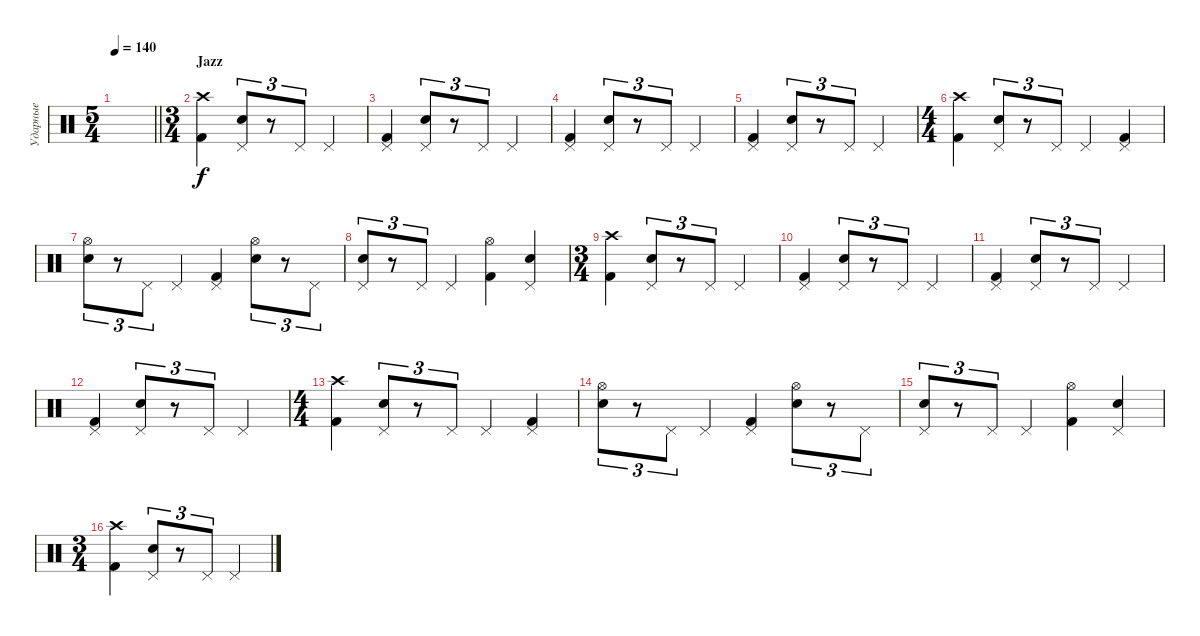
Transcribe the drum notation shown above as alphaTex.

\track ("Ударные" "Ударные") {instrument percussion}
\staff {score}
\articulation defaults
\ts (5 4)
\tempo 140
\clef neutral
\barLineRight lightlight
\ks c
|
\ts (3 4)
\section ("" "Jazz")
("Crash high (hit)" "Kick (hit) 2").4 ("Pedal Hi-Hat (hit)" "Electric Snare (hit)").8{tu (3 2)} r.8{tu (3 2)} "Pedal Hi-Hat (hit)".8{tu (3 2)} "Pedal Hi-Hat (hit)".4 |
("Pedal Hi-Hat (hit)" "Kick (hit) 2").4 ("Pedal Hi-Hat (hit)" "Electric Snare (hit)").8{tu (3 2)} r.8{tu (3 2)} "Pedal Hi-Hat (hit)".8{tu (3 2)} "Pedal Hi-Hat (hit)".4 |
("Pedal Hi-Hat (hit)" "Kick (hit) 2").4 ("Pedal Hi-Hat (hit)" "Electric Snare (hit)").8{tu (3 2)} r.8{tu (3 2)} "Pedal Hi-Hat (hit)".8{tu (3 2)} "Pedal Hi-Hat (hit)".4 |
("Pedal Hi-Hat (hit)" "Kick (hit) 2").4 ("Pedal Hi-Hat (hit)" "Electric Snare (hit)").8{tu (3 2)} r.8{tu (3 2)} "Pedal Hi-Hat (hit)".8{tu (3 2)} "Pedal Hi-Hat (hit)".4 |
\ts (4 4)
("Crash high (hit)" "Kick (hit) 2").4 ("Pedal Hi-Hat (hit)" "Electric Snare (hit)").8{tu (3 2)} r.8{tu (3 2)} "Pedal Hi-Hat (hit)".8{tu (3 2)} "Pedal Hi-Hat (hit)".4 ("Pedal Hi-Hat (hit)" "Kick (hit) 2").4 |
("Hi-Hat (open)" "Electric Snare (hit)").8{tu (3 2)} r.8{tu (3 2)} "Pedal Hi-Hat (hit)".8{tu (3 2)} "Pedal Hi-Hat (hit)".4 ("Pedal Hi-Hat (hit)" "Kick (hit) 2").4 ("Hi-Hat (open)" "Electric Snare (hit)").8{tu (3 2)} r.8{tu (3 2)} "Pedal Hi-Hat (hit)".8{tu (3 2)} |
("Pedal Hi-Hat (hit)" "Electric Snare (hit)").8{tu (3 2)} r.8{tu (3 2)} "Pedal Hi-Hat (hit)".8{tu (3 2)} "Pedal Hi-Hat (hit)".4 ("Hi-Hat (open)" "Kick (hit) 2").4 ("Pedal Hi-Hat (hit)" "Electric Snare (hit)").4 |
\ts (3 4)
("Crash high (hit)" "Kick (hit) 2").4 ("Pedal Hi-Hat (hit)" "Electric Snare (hit)").8{tu (3 2)} r.8{tu (3 2)} "Pedal Hi-Hat (hit)".8{tu (3 2)} "Pedal Hi-Hat (hit)".4 |
("Pedal Hi-Hat (hit)" "Kick (hit) 2").4 ("Pedal Hi-Hat (hit)" "Electric Snare (hit)").8{tu (3 2)} r.8{tu (3 2)} "Pedal Hi-Hat (hit)".8{tu (3 2)} "Pedal Hi-Hat (hit)".4 |
("Pedal Hi-Hat (hit)" "Kick (hit) 2").4 ("Pedal Hi-Hat (hit)" "Electric Snare (hit)").8{tu (3 2)} r.8{tu (3 2)} "Pedal Hi-Hat (hit)".8{tu (3 2)} "Pedal Hi-Hat (hit)".4 |
("Pedal Hi-Hat (hit)" "Kick (hit) 2").4 ("Pedal Hi-Hat (hit)" "Electric Snare (hit)").8{tu (3 2)} r.8{tu (3 2)} "Pedal Hi-Hat (hit)".8{tu (3 2)} "Pedal Hi-Hat (hit)".4 |
\ts (4 4)
("Crash high (hit)" "Kick (hit) 2").4 ("Pedal Hi-Hat (hit)" "Electric Snare (hit)").8{tu (3 2)} r.8{tu (3 2)} "Pedal Hi-Hat (hit)".8{tu (3 2)} "Pedal Hi-Hat (hit)".4 ("Pedal Hi-Hat (hit)" "Kick (hit) 2").4 |
("Hi-Hat (open)" "Electric Snare (hit)").8{tu (3 2)} r.8{tu (3 2)} "Pedal Hi-Hat (hit)".8{tu (3 2)} "Pedal Hi-Hat (hit)".4 ("Pedal Hi-Hat (hit)" "Kick (hit) 2").4 ("Hi-Hat (open)" "Electric Snare (hit)").8{tu (3 2)} r.8{tu (3 2)} "Pedal Hi-Hat (hit)".8{tu (3 2)} |
("Pedal Hi-Hat (hit)" "Electric Snare (hit)").8{tu (3 2)} r.8{tu (3 2)} "Pedal Hi-Hat (hit)".8{tu (3 2)} "Pedal Hi-Hat (hit)".4 ("Hi-Hat (open)" "Kick (hit) 2").4 ("Pedal Hi-Hat (hit)" "Electric Snare (hit)").4 |
\ts (3 4)
("Crash high (hit)" "Kick (hit) 2").4 ("Pedal Hi-Hat (hit)" "Electric Snare (hit)").8{tu (3 2)} r.8{tu (3 2)} "Pedal Hi-Hat (hit)".8{tu (3 2)} "Pedal Hi-Hat (hit)".4
